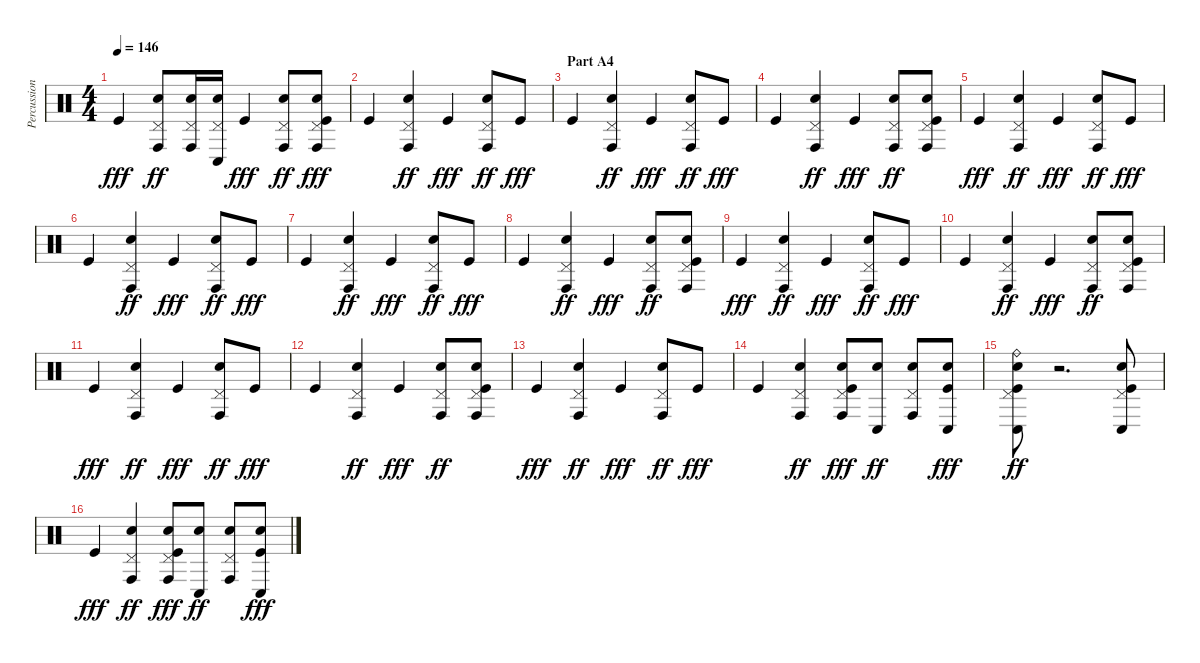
\track ("Percussion" "Percussion") {instrument percussion}
\staff {score}
\articulation defaults
\ts (4 4)
\tempo 146
\clef neutral
\ks c "Kick (hit)".4{dy fff}
("Pedal Hi-Hat (hit)" "Conga high (hit)" "Electric Snare (hit)").8{dy ff} ("Pedal Hi-Hat (hit)" "Conga high (hit)" "Electric Snare (hit)").16 ("Pedal Hi-Hat (hit)" "Conga low (hit)" "Electric Snare (hit)").16 "Kick (hit)".4{dy fff} ("Pedal Hi-Hat (hit)" "Conga high (hit)" "Electric Snare (hit)").8{dy ff} ("Pedal Hi-Hat (hit)" "Conga high (hit)" "Electric Snare (hit)" "Kick (hit)").8{dy fff} |
"Kick (hit)".4 ("Pedal Hi-Hat (hit)" "Conga high (hit)" "Electric Snare (hit)").4{dy ff} "Kick (hit)".4{dy fff} ("Pedal Hi-Hat (hit)" "Conga high (hit)" "Electric Snare (hit)").8{dy ff} "Kick (hit)".8{dy fff} |
\section ("" "Part A4")
"Kick (hit)".4 ("Pedal Hi-Hat (hit)" "Conga high (hit)" "Electric Snare (hit)").4{dy ff} "Kick (hit)".4{dy fff} ("Pedal Hi-Hat (hit)" "Conga high (hit)" "Electric Snare (hit)").8{dy ff} "Kick (hit)".8{dy fff} |
"Kick (hit)".4 ("Pedal Hi-Hat (hit)" "Conga high (hit)" "Electric Snare (hit)").4{dy ff} "Kick (hit)".4{dy fff} ("Pedal Hi-Hat (hit)" "Conga high (hit)" "Electric Snare (hit)").8{dy ff} ("Pedal Hi-Hat (hit)" "Conga high (hit)" "Electric Snare (hit)" "Kick (hit)").8 |
"Kick (hit)".4{dy fff} ("Pedal Hi-Hat (hit)" "Conga high (hit)" "Electric Snare (hit)").4{dy ff} "Kick (hit)".4{dy fff} ("Pedal Hi-Hat (hit)" "Conga high (hit)" "Electric Snare (hit)").8{dy ff} "Kick (hit)".8{dy fff} |
"Kick (hit)".4 ("Pedal Hi-Hat (hit)" "Conga high (hit)" "Electric Snare (hit)").4{dy ff} "Kick (hit)".4{dy fff} ("Pedal Hi-Hat (hit)" "Conga high (hit)" "Electric Snare (hit)").8{dy ff} "Kick (hit)".8{dy fff} |
"Kick (hit)".4 ("Pedal Hi-Hat (hit)" "Conga high (hit)" "Electric Snare (hit)").4{dy ff} "Kick (hit)".4{dy fff} ("Pedal Hi-Hat (hit)" "Conga high (hit)" "Electric Snare (hit)").8{dy ff} "Kick (hit)".8{dy fff} |
"Kick (hit)".4 ("Pedal Hi-Hat (hit)" "Conga high (hit)" "Electric Snare (hit)").4{dy ff} "Kick (hit)".4{dy fff} ("Pedal Hi-Hat (hit)" "Conga high (hit)" "Electric Snare (hit)").8{dy ff} ("Pedal Hi-Hat (hit)" "Conga high (hit)" "Electric Snare (hit)" "Kick (hit)").8 |
"Kick (hit)".4{dy fff} ("Pedal Hi-Hat (hit)" "Conga high (hit)" "Electric Snare (hit)").4{dy ff} "Kick (hit)".4{dy fff} ("Pedal Hi-Hat (hit)" "Conga high (hit)" "Electric Snare (hit)").8{dy ff} "Kick (hit)".8{dy fff} |
"Kick (hit)".4 ("Pedal Hi-Hat (hit)" "Conga high (hit)" "Electric Snare (hit)").4{dy ff} "Kick (hit)".4{dy fff} ("Pedal Hi-Hat (hit)" "Conga high (hit)" "Electric Snare (hit)").8{dy ff} ("Pedal Hi-Hat (hit)" "Conga high (hit)" "Electric Snare (hit)" "Kick (hit)").8 |
"Kick (hit)".4{dy fff} ("Pedal Hi-Hat (hit)" "Conga high (hit)" "Electric Snare (hit)").4{dy ff} "Kick (hit)".4{dy fff} ("Pedal Hi-Hat (hit)" "Conga high (hit)" "Electric Snare (hit)").8{dy ff} "Kick (hit)".8{dy fff} |
"Kick (hit)".4 ("Pedal Hi-Hat (hit)" "Conga high (hit)" "Electric Snare (hit)").4{dy ff} "Kick (hit)".4{dy fff} ("Pedal Hi-Hat (hit)" "Conga high (hit)" "Electric Snare (hit)").8{dy ff} ("Pedal Hi-Hat (hit)" "Conga high (hit)" "Electric Snare (hit)" "Kick (hit)").8 |
"Kick (hit)".4{dy fff} ("Pedal Hi-Hat (hit)" "Conga high (hit)" "Electric Snare (hit)").4{dy ff} "Kick (hit)".4{dy fff} ("Pedal Hi-Hat (hit)" "Conga high (hit)" "Electric Snare (hit)").8{dy ff} "Kick (hit)".8{dy fff} |
"Kick (hit)".4 ("Pedal Hi-Hat (hit)" "Conga high (hit)" "Electric Snare (hit)").4{dy ff} ("Pedal Hi-Hat (hit)" "Conga high (hit)" "Electric Snare (hit)" "Kick (hit)").8{dy fff} ("Conga low (hit)" "Electric Snare (hit)").8{dy ff} ("Pedal Hi-Hat (hit)" "Conga high (hit)" "Electric Snare (hit)").8 ("Conga low (hit)" "Electric Snare (hit)" "Kick (hit)").8{dy fff} |
("Ride (bell)" "Pedal Hi-Hat (hit)" "Conga low (hit)" "Electric Snare (hit)" "Kick (hit)").8{dy ff} r.2{d} ("Pedal Hi-Hat (hit)" "Conga low (hit)" "Electric Snare (hit)" "Kick (hit)").8 |
"Kick (hit)".4{dy fff} ("Pedal Hi-Hat (hit)" "Conga high (hit)" "Electric Snare (hit)").4{dy ff} ("Pedal Hi-Hat (hit)" "Conga high (hit)" "Electric Snare (hit)" "Kick (hit)").8{dy fff} ("Conga low (hit)" "Electric Snare (hit)").8{dy ff} ("Pedal Hi-Hat (hit)" "Conga high (hit)" "Electric Snare (hit)").8 ("Conga low (hit)" "Electric Snare (hit)" "Kick (hit)").8{dy fff}
